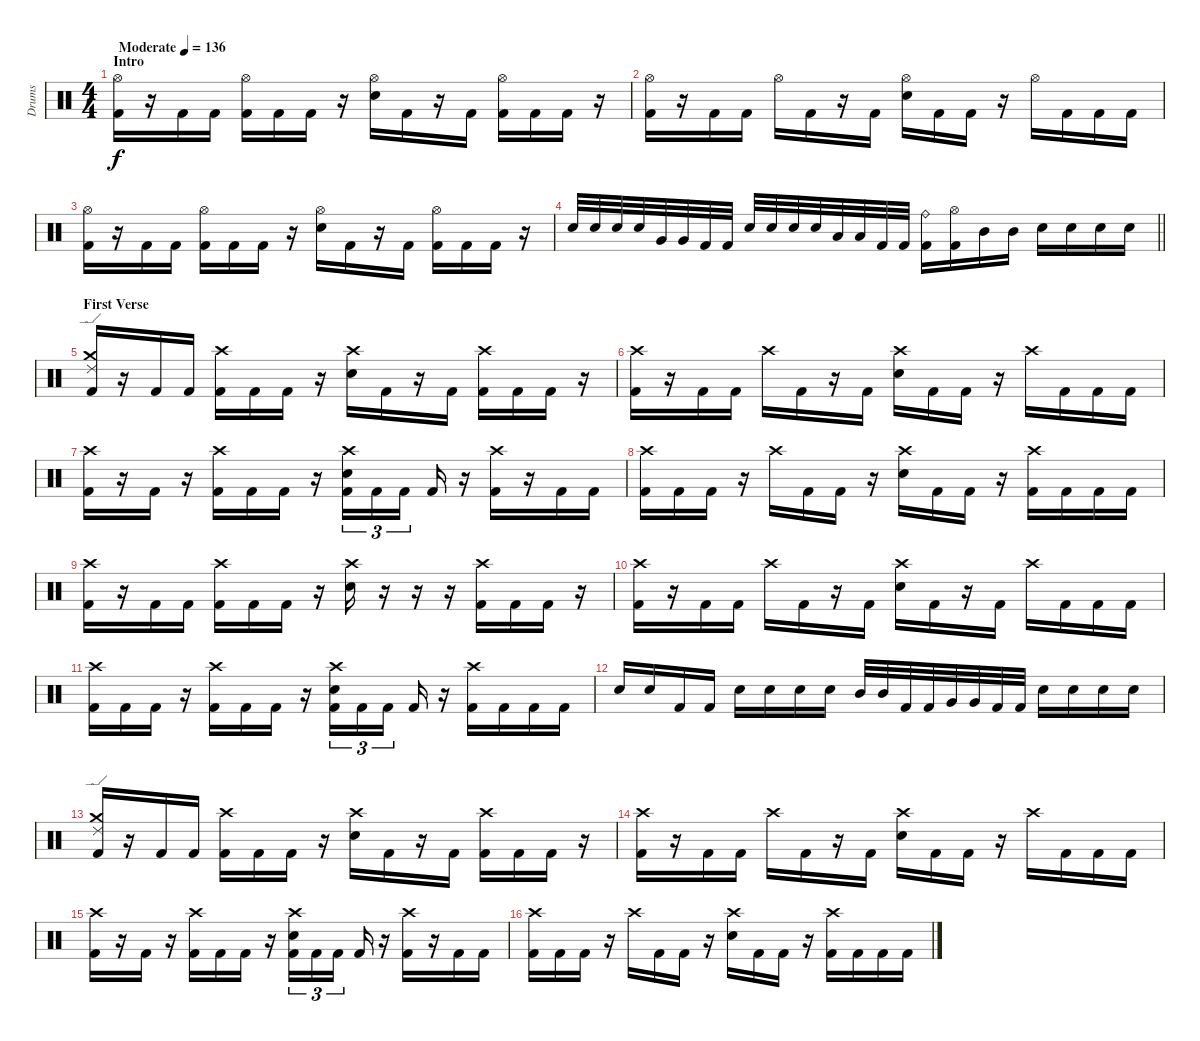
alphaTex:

\track ("Drums" "Drums") {instrument percussion}
\staff {score}
\articulation defaults
\ts (4 4)
\section ("" "Intro")
\tempo (136 "Moderate")
\clef neutral
\ks c
("Hi-Hat (open)" "Kick (hit) 2").16{dy f} r.16 "Kick (hit) 2".16 "Kick (hit) 2".16 ("Hi-Hat (open)" "Kick (hit) 2").16 "Kick (hit) 2".16 "Kick (hit) 2".16 r.16 ("Hi-Hat (open)" "Electric Snare (hit)").16 "Kick (hit) 2".16 r.16 "Kick (hit) 2".16 ("Hi-Hat (open)" "Kick (hit) 2").16 "Kick (hit) 2".16 "Kick (hit) 2".16 r.16 |
("Hi-Hat (open)" "Kick (hit) 2").16 r.16 "Kick (hit) 2".16 "Kick (hit) 2".16 "Hi-Hat (open)".16 "Kick (hit) 2".16 r.16 "Kick (hit) 2".16 ("Hi-Hat (open)" "Electric Snare (hit)").16 "Kick (hit) 2".16 "Kick (hit) 2".16 r.16 "Hi-Hat (open)".16 "Kick (hit) 2".16 "Kick (hit) 2".16 "Kick (hit) 2".16 |
("Hi-Hat (open)" "Kick (hit) 2").16 r.16 "Kick (hit) 2".16 "Kick (hit) 2".16 ("Hi-Hat (open)" "Kick (hit) 2").16 "Kick (hit) 2".16 "Kick (hit) 2".16 r.16 ("Hi-Hat (open)" "Electric Snare (hit)").16 "Kick (hit) 2".16 r.16 "Kick (hit) 2".16 ("Hi-Hat (open)" "Kick (hit) 2").16 "Kick (hit) 2".16 "Kick (hit) 2".16 r.16 |
\barLineRight lightlight "Electric Snare (hit)".32 "Electric Snare (hit)".32 "Electric Snare (hit)".32 "Electric Snare (hit)".32 "Very Low Tom (hit)".32 "Very Low Tom (hit)".32 "Kick (hit) 2".32 "Kick (hit) 2".32 "Electric Snare (hit)".32 "Electric Snare (hit)".32 "Electric Snare (hit)".32 "Electric Snare (hit)".32 "Low Tom (hit)".32 "Low Tom (hit)".32 "Kick (hit) 2".32 "Kick (hit) 2".32
("Ride (bell)" "Kick (hit) 2").16 ("Hi-Hat (open)" "Kick (hit) 2").16 "Mid Tom (hit)".16 "Mid Tom (hit)".16 "Electric Snare (hit)".16 "Electric Snare (hit)".16 "Electric Snare (hit)".16 "Electric Snare (hit)".16 |
\section ("" "First Verse")
("Crash medium (hit)" "Ride (edge) 2" "Kick (hit) 2").16 r.16 "Kick (hit) 2".16 "Kick (hit) 2".16 ("Crash high (hit)" "Kick (hit) 2").16 "Kick (hit) 2".16 "Kick (hit) 2".16 r.16 ("Crash high (hit)" "Electric Snare (hit)").16 "Kick (hit) 2".16 r.16 "Kick (hit) 2".16 ("Crash high (hit)" "Kick (hit) 2").16 "Kick (hit) 2".16 "Kick (hit) 2".16 r.16 |
("Crash high (hit)" "Kick (hit) 2").16 r.16 "Kick (hit) 2".16 "Kick (hit) 2".16 "Crash high (hit)".16 "Kick (hit) 2".16 r.16 "Kick (hit) 2".16 ("Crash high (hit)" "Electric Snare (hit)").16 "Kick (hit) 2".16 "Kick (hit) 2".16 r.16 "Crash high (hit)".16 "Kick (hit) 2".16 "Kick (hit) 2".16 "Kick (hit) 2".16 |
("Crash high (hit)" "Kick (hit) 2").16 r.16 "Kick (hit) 2".16 r.16 ("Crash high (hit)" "Kick (hit) 2").16 "Kick (hit) 2".16 "Kick (hit) 2".16 r.16 ("Crash high (hit)" "Electric Snare (hit)" "Kick (hit) 2").16{tu (3 2)} "Kick (hit) 2".16{tu (3 2)} "Kick (hit) 2".16{tu (3 2) beam splitsecondary} "Kick (hit) 2".16 r.16 ("Crash high (hit)" "Kick (hit) 2").16 r.16 "Kick (hit) 2".16 "Kick (hit) 2".16 |
("Crash high (hit)" "Kick (hit) 2").16 "Kick (hit) 2".16 "Kick (hit) 2".16 r.16 "Crash high (hit)".16 "Kick (hit) 2".16 "Kick (hit) 2".16 r.16 ("Crash high (hit)" "Electric Snare (hit)").16 "Kick (hit) 2".16 "Kick (hit) 2".16 r.16 ("Crash high (hit)" "Kick (hit) 2").16 "Kick (hit) 2".16 "Kick (hit) 2".16 "Kick (hit) 2".16 |
("Crash high (hit)" "Kick (hit) 2").16 r.16 "Kick (hit) 2".16 "Kick (hit) 2".16 ("Crash high (hit)" "Kick (hit) 2").16 "Kick (hit) 2".16 "Kick (hit) 2".16 r.16 ("Crash high (hit)" "Electric Snare (hit)").16 r.16 r.16 r.16 ("Crash high (hit)" "Kick (hit) 2").16 "Kick (hit) 2".16 "Kick (hit) 2".16 r.16 |
("Crash high (hit)" "Kick (hit) 2").16 r.16 "Kick (hit) 2".16 "Kick (hit) 2".16 "Crash high (hit)".16 "Kick (hit) 2".16 r.16 "Kick (hit) 2".16 ("Crash high (hit)" "Electric Snare (hit)").16 "Kick (hit) 2".16 r.16 "Kick (hit) 2".16 "Crash high (hit)".16 "Kick (hit) 2".16 "Kick (hit) 2".16 "Kick (hit) 2".16 |
("Crash high (hit)" "Kick (hit) 2").16 "Kick (hit) 2".16 "Kick (hit) 2".16 r.16 ("Crash high (hit)" "Kick (hit) 2").16 "Kick (hit) 2".16 "Kick (hit) 2".16 r.16 ("Crash high (hit)" "Electric Snare (hit)" "Kick (hit) 2").16{tu (3 2)} "Kick (hit) 2".16{tu (3 2)} "Kick (hit) 2".16{tu (3 2) beam splitsecondary} "Kick (hit) 2".16 r.16 ("Crash high (hit)" "Kick (hit) 2").16 "Kick (hit) 2".16 "Kick (hit) 2".16 "Kick (hit) 2".16 |
"Electric Snare (hit)".16 "Electric Snare (hit)".16 "Kick (hit) 2".16 "Kick (hit) 2".16 "Electric Snare (hit)".16 "Electric Snare (hit)".16 "Electric Snare (hit)".16 "Electric Snare (hit)".16 "Mid Tom (hit)".32 "Mid Tom (hit)".32 "Kick (hit) 2".32 "Kick (hit) 2".32 "Very Low Tom (hit)".32 "Very Low Tom (hit)".32 "Kick (hit) 2".32 "Kick (hit) 2".32 "Electric Snare (hit)".16 "Electric Snare (hit)".16 "Electric Snare (hit)".16 "Electric Snare (hit)".16 |
("Crash medium (hit)" "Ride (edge) 2" "Kick (hit) 2").16 r.16 "Kick (hit) 2".16 "Kick (hit) 2".16 ("Crash high (hit)" "Kick (hit) 2").16 "Kick (hit) 2".16 "Kick (hit) 2".16 r.16 ("Crash high (hit)" "Electric Snare (hit)").16 "Kick (hit) 2".16 r.16 "Kick (hit) 2".16 ("Crash high (hit)" "Kick (hit) 2").16 "Kick (hit) 2".16 "Kick (hit) 2".16 r.16 |
("Crash high (hit)" "Kick (hit) 2").16 r.16 "Kick (hit) 2".16 "Kick (hit) 2".16 "Crash high (hit)".16 "Kick (hit) 2".16 r.16 "Kick (hit) 2".16 ("Crash high (hit)" "Electric Snare (hit)").16 "Kick (hit) 2".16 "Kick (hit) 2".16 r.16 "Crash high (hit)".16 "Kick (hit) 2".16 "Kick (hit) 2".16 "Kick (hit) 2".16 |
("Crash high (hit)" "Kick (hit) 2").16 r.16 "Kick (hit) 2".16 r.16 ("Crash high (hit)" "Kick (hit) 2").16 "Kick (hit) 2".16 "Kick (hit) 2".16 r.16 ("Crash high (hit)" "Electric Snare (hit)" "Kick (hit) 2").16{tu (3 2)} "Kick (hit) 2".16{tu (3 2)} "Kick (hit) 2".16{tu (3 2) beam splitsecondary} "Kick (hit) 2".16 r.16 ("Crash high (hit)" "Kick (hit) 2").16 r.16 "Kick (hit) 2".16 "Kick (hit) 2".16 |
("Crash high (hit)" "Kick (hit) 2").16 "Kick (hit) 2".16 "Kick (hit) 2".16 r.16 "Crash high (hit)".16 "Kick (hit) 2".16 "Kick (hit) 2".16 r.16 ("Crash high (hit)" "Electric Snare (hit)").16 "Kick (hit) 2".16 "Kick (hit) 2".16 r.16 ("Crash high (hit)" "Kick (hit) 2").16 "Kick (hit) 2".16 "Kick (hit) 2".16 "Kick (hit) 2".16
